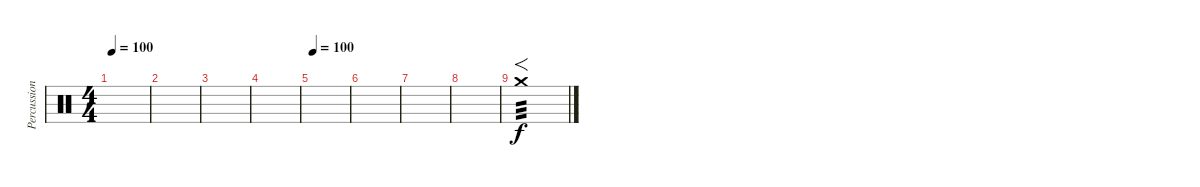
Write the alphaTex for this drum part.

\track ("Percussions" "Percussion") {instrument percussion}
\staff {score}
\articulation defaults
\ts (4 4)
\tempo 100
\clef neutral
\ks c
|
|
|
|
\tempo 100
|
|
|
|
"Crash medium (hit)".1{f tp 3}
